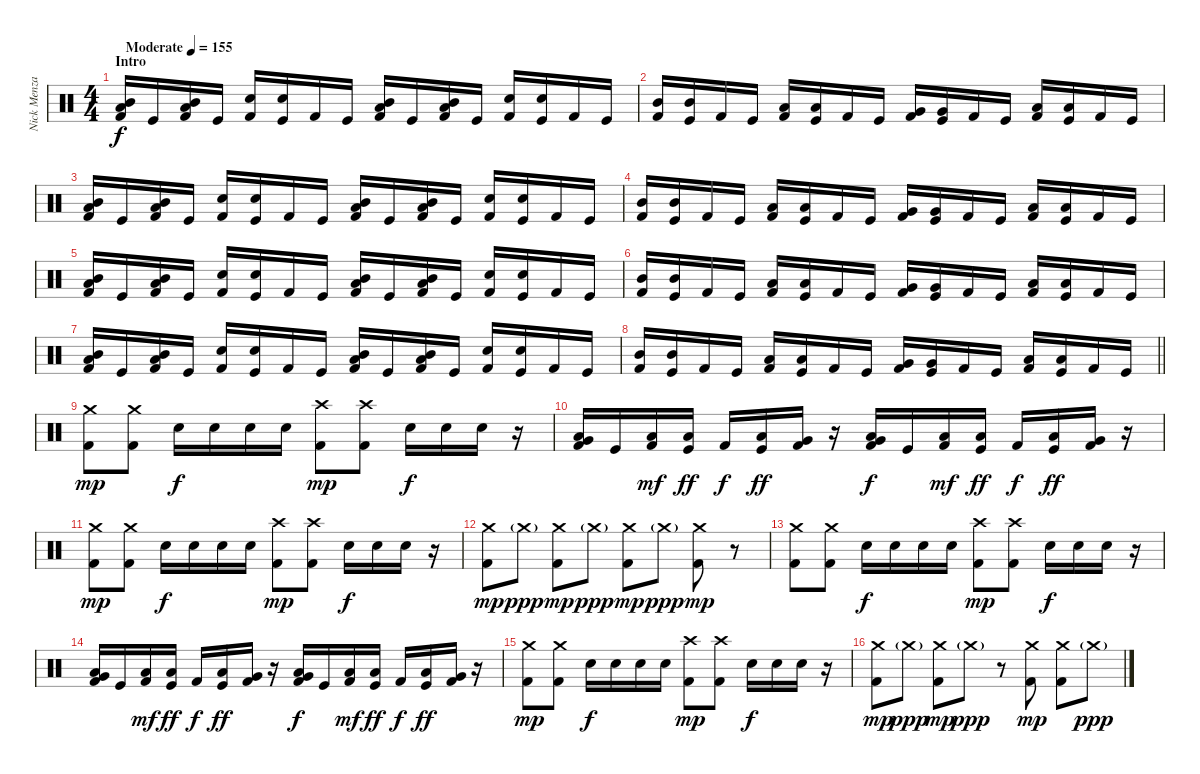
\track ("Nick Menza" "Nick Menza") {solo instrument percussion}
\staff {score}
\articulation defaults
\ts (4 4)
\section ("" "Intro")
\tempo (155 "Moderate")
\clef neutral
\ks c
("Mid Tom (hit)" "Low Tom (hit)" "Kick (hit) 2").16{dy f} "Kick (hit)".16 ("Mid Tom (hit)" "Low Tom (hit)" "Kick (hit) 2").16 "Kick (hit)".16 ("Electric Snare (hit)" "Kick (hit) 2").16 ("Electric Snare (hit)" "Kick (hit)").16 "Kick (hit) 2".16 "Kick (hit)".16 ("Mid Tom (hit)" "Low Tom (hit)" "Kick (hit) 2").16 "Kick (hit)".16 ("Mid Tom (hit)" "Low Tom (hit)" "Kick (hit) 2").16 "Kick (hit)".16 ("Electric Snare (hit)" "Kick (hit) 2").16 ("Electric Snare (hit)" "Kick (hit)").16 "Kick (hit) 2".16 "Kick (hit)".16 |
("Mid Tom (hit)" "Kick (hit) 2").16 ("Mid Tom (hit)" "Kick (hit)").16 "Kick (hit) 2".16 "Kick (hit)".16 ("Low Tom (hit)" "Kick (hit) 2").16 ("Low Tom (hit)" "Kick (hit)").16 "Kick (hit) 2".16 "Kick (hit)".16 ("Very Low Tom (hit)" "Kick (hit) 2").16 ("Very Low Tom (hit)" "Kick (hit)").16 "Kick (hit) 2".16 "Kick (hit)".16 ("Low Floor Tom (hit)" "Kick (hit) 2").16 ("Low Floor Tom (hit)" "Kick (hit)").16 "Kick (hit) 2".16 "Kick (hit)".16 |
("Mid Tom (hit)" "Low Tom (hit)" "Kick (hit) 2").16 "Kick (hit)".16 ("Mid Tom (hit)" "Low Tom (hit)" "Kick (hit) 2").16 "Kick (hit)".16 ("Electric Snare (hit)" "Kick (hit) 2").16 ("Electric Snare (hit)" "Kick (hit)").16 "Kick (hit) 2".16 "Kick (hit)".16 ("Mid Tom (hit)" "Low Tom (hit)" "Kick (hit) 2").16 "Kick (hit)".16 ("Mid Tom (hit)" "Low Tom (hit)" "Kick (hit) 2").16 "Kick (hit)".16 ("Electric Snare (hit)" "Kick (hit) 2").16 ("Electric Snare (hit)" "Kick (hit)").16 "Kick (hit) 2".16 "Kick (hit)".16 |
("Mid Tom (hit)" "Kick (hit) 2").16 ("Mid Tom (hit)" "Kick (hit)").16 "Kick (hit) 2".16 "Kick (hit)".16 ("Low Tom (hit)" "Kick (hit) 2").16 ("Low Tom (hit)" "Kick (hit)").16 "Kick (hit) 2".16 "Kick (hit)".16 ("Very Low Tom (hit)" "Kick (hit) 2").16 ("Very Low Tom (hit)" "Kick (hit)").16 "Kick (hit) 2".16 "Kick (hit)".16 ("Low Floor Tom (hit)" "Kick (hit) 2").16 ("Low Floor Tom (hit)" "Kick (hit)").16 "Kick (hit) 2".16 "Kick (hit)".16 |
("Mid Tom (hit)" "Low Tom (hit)" "Kick (hit) 2").16 "Kick (hit)".16 ("Mid Tom (hit)" "Low Tom (hit)" "Kick (hit) 2").16 "Kick (hit)".16 ("Electric Snare (hit)" "Kick (hit) 2").16 ("Electric Snare (hit)" "Kick (hit)").16 "Kick (hit) 2".16 "Kick (hit)".16 ("Mid Tom (hit)" "Low Tom (hit)" "Kick (hit) 2").16 "Kick (hit)".16 ("Mid Tom (hit)" "Low Tom (hit)" "Kick (hit) 2").16 "Kick (hit)".16 ("Electric Snare (hit)" "Kick (hit) 2").16 ("Electric Snare (hit)" "Kick (hit)").16 "Kick (hit) 2".16 "Kick (hit)".16 |
("Mid Tom (hit)" "Kick (hit) 2").16 ("Mid Tom (hit)" "Kick (hit)").16 "Kick (hit) 2".16 "Kick (hit)".16 ("Low Tom (hit)" "Kick (hit) 2").16 ("Low Tom (hit)" "Kick (hit)").16 "Kick (hit) 2".16 "Kick (hit)".16 ("Very Low Tom (hit)" "Kick (hit) 2").16 ("Very Low Tom (hit)" "Kick (hit)").16 "Kick (hit) 2".16 "Kick (hit)".16 ("Low Floor Tom (hit)" "Kick (hit) 2").16 ("Low Floor Tom (hit)" "Kick (hit)").16 "Kick (hit) 2".16 "Kick (hit)".16 |
("Mid Tom (hit)" "Low Tom (hit)" "Kick (hit) 2").16 "Kick (hit)".16 ("Mid Tom (hit)" "Low Tom (hit)" "Kick (hit) 2").16 "Kick (hit)".16 ("Electric Snare (hit)" "Kick (hit) 2").16 ("Electric Snare (hit)" "Kick (hit)").16 "Kick (hit) 2".16 "Kick (hit)".16 ("Mid Tom (hit)" "Low Tom (hit)" "Kick (hit) 2").16 "Kick (hit)".16 ("Mid Tom (hit)" "Low Tom (hit)" "Kick (hit) 2").16 "Kick (hit)".16 ("Electric Snare (hit)" "Kick (hit) 2").16 ("Electric Snare (hit)" "Kick (hit)").16 "Kick (hit) 2".16 "Kick (hit)".16 |
\barLineRight lightlight
("Mid Tom (hit)" "Kick (hit) 2").16 ("Mid Tom (hit)" "Kick (hit)").16 "Kick (hit) 2".16 "Kick (hit)".16 ("Low Tom (hit)" "Kick (hit) 2").16 ("Low Tom (hit)" "Kick (hit)").16 "Kick (hit) 2".16 "Kick (hit)".16 ("Very Low Tom (hit)" "Kick (hit) 2").16 ("Very Low Tom (hit)" "Kick (hit)").16 "Kick (hit) 2".16 "Kick (hit)".16 ("Low Floor Tom (hit)" "Kick (hit) 2").16 ("Low Floor Tom (hit)" "Kick (hit)").16 "Kick (hit) 2".16 "Kick (hit)".16 |
\section ("" "")
("Crash medium (hit)" "Kick (hit) 2").8{dy mp} ("Crash medium (hit)" "Kick (hit) 2").8 "Electric Snare (hit)".16{dy f} "Electric Snare (hit)".16 "Electric Snare (hit)".16 "Electric Snare (hit)".16 ("Crash high (hit)" "Kick (hit) 2").8{dy mp} ("Crash high (hit)" "Kick (hit) 2").8 "Electric Snare (hit)".16{dy f} "Electric Snare (hit)".16 "Electric Snare (hit)".16 r.16 |
("Low Tom (hit)" "Very Low Tom (hit)" "Kick (hit) 2").16 "Kick (hit)".16 ("Low Floor Tom (hit)" "Kick (hit) 2").16{dy mf} ("Low Tom (hit)" "Kick (hit)").16{dy ff} "Kick (hit) 2".16{dy f} ("Low Floor Tom (hit)" "Kick (hit)").16{dy ff} ("Very Low Tom (hit)" "Kick (hit) 2").16 r.16 ("Low Tom (hit)" "Very Low Tom (hit)" "Kick (hit) 2").16{dy f} "Kick (hit)".16 ("Low Floor Tom (hit)" "Kick (hit) 2").16{dy mf} ("Low Tom (hit)" "Kick (hit)").16{dy ff} "Kick (hit) 2".16{dy f} ("Low Floor Tom (hit)" "Kick (hit)").16{dy ff} ("Very Low Tom (hit)" "Kick (hit) 2").16 r.16 |
("Crash medium (hit)" "Kick (hit) 2").8{dy mp} ("Crash medium (hit)" "Kick (hit) 2").8 "Electric Snare (hit)".16{dy f} "Electric Snare (hit)".16 "Electric Snare (hit)".16 "Electric Snare (hit)".16 ("Crash high (hit)" "Kick (hit) 2").8{dy mp} ("Crash high (hit)" "Kick (hit) 2").8 "Electric Snare (hit)".16{dy f} "Electric Snare (hit)".16 "Electric Snare (hit)".16 r.16 |
("Crash medium (hit)" "Kick (hit) 2").8{dy mp} "Crash medium (hit)"{g}.8{dy ppp} ("Crash medium (hit)" "Kick (hit) 2").8{dy mp} "Crash medium (hit)"{g}.8{dy ppp} ("Crash medium (hit)" "Kick (hit) 2").8{dy mp} "Crash medium (hit)"{g}.8{dy ppp} ("Crash medium (hit)" "Kick (hit) 2").8{dy mp} r.8 |
("Crash medium (hit)" "Kick (hit) 2").8 ("Crash medium (hit)" "Kick (hit) 2").8 "Electric Snare (hit)".16{dy f} "Electric Snare (hit)".16 "Electric Snare (hit)".16 "Electric Snare (hit)".16 ("Crash high (hit)" "Kick (hit) 2").8{dy mp} ("Crash high (hit)" "Kick (hit) 2").8 "Electric Snare (hit)".16{dy f} "Electric Snare (hit)".16 "Electric Snare (hit)".16 r.16 |
("Low Tom (hit)" "Very Low Tom (hit)" "Kick (hit) 2").16 "Kick (hit)".16 ("Low Floor Tom (hit)" "Kick (hit) 2").16{dy mf} ("Low Tom (hit)" "Kick (hit)").16{dy ff} "Kick (hit) 2".16{dy f} ("Low Floor Tom (hit)" "Kick (hit)").16{dy ff} ("Very Low Tom (hit)" "Kick (hit) 2").16 r.16 ("Low Tom (hit)" "Very Low Tom (hit)" "Kick (hit) 2").16{dy f} "Kick (hit)".16 ("Low Floor Tom (hit)" "Kick (hit) 2").16{dy mf} ("Low Tom (hit)" "Kick (hit)").16{dy ff} "Kick (hit) 2".16{dy f} ("Low Floor Tom (hit)" "Kick (hit)").16{dy ff} ("Very Low Tom (hit)" "Kick (hit) 2").16 r.16 |
("Crash medium (hit)" "Kick (hit) 2").8{dy mp} ("Crash medium (hit)" "Kick (hit) 2").8 "Electric Snare (hit)".16{dy f} "Electric Snare (hit)".16 "Electric Snare (hit)".16 "Electric Snare (hit)".16 ("Crash high (hit)" "Kick (hit) 2").8{dy mp} ("Crash high (hit)" "Kick (hit) 2").8 "Electric Snare (hit)".16{dy f} "Electric Snare (hit)".16 "Electric Snare (hit)".16 r.16 |
("Crash medium (hit)" "Kick (hit) 2").8{dy mp} "Crash medium (hit)"{g}.8{dy ppp} ("Crash medium (hit)" "Kick (hit) 2").8{dy mp} "Crash medium (hit)"{g}.8{dy ppp} r.8 ("Crash medium (hit)" "Kick (hit) 2").8{dy mp} ("Crash medium (hit)" "Kick (hit) 2").8 "Crash medium (hit)"{g}.8{dy ppp}
